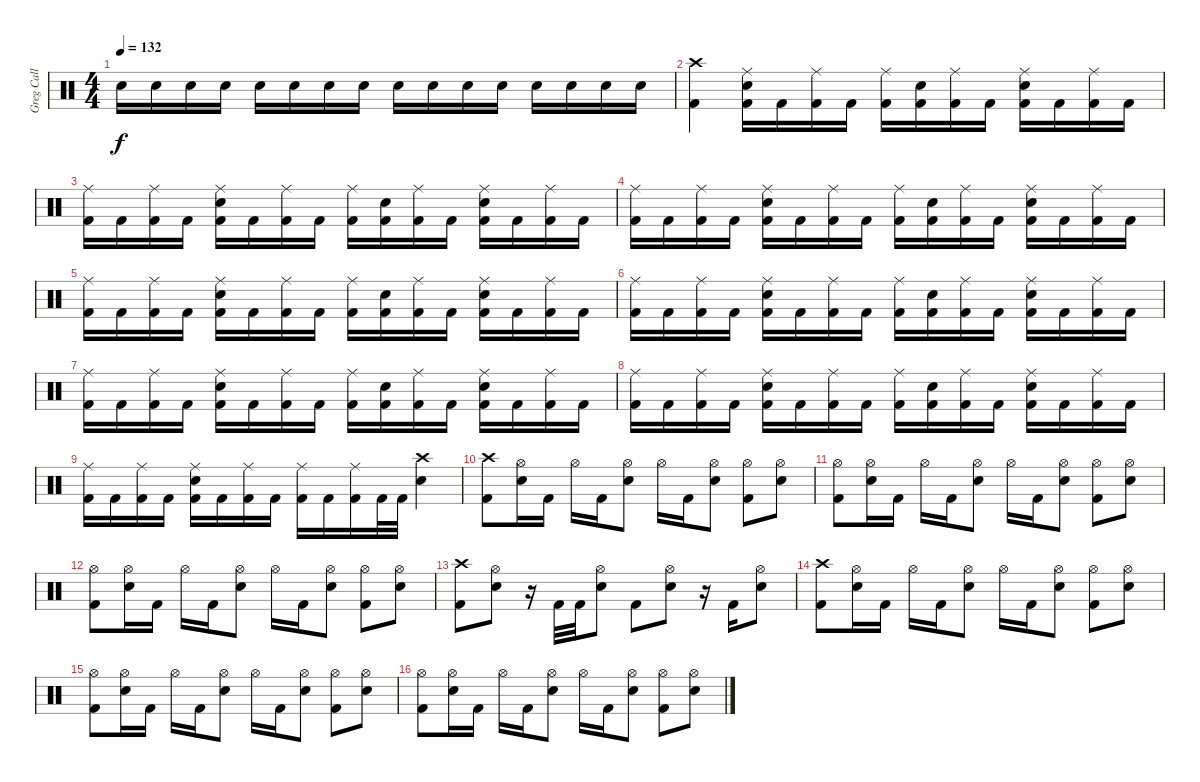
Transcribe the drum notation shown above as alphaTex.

\track ("Greg Call (Drums)" "Greg Call ") {instrument percussion}
\staff {score}
\articulation defaults
\ts (4 4)
\tempo 132
\clef neutral
\ks c "Snare (hit) 2".16{dy f} "Snare (hit) 2".16 "Snare (hit) 2".16 "Snare (hit) 2".16 "Snare (hit) 2".16 "Snare (hit) 2".16 "Snare (hit) 2".16 "Snare (hit) 2".16 "Snare (hit) 2".16 "Snare (hit) 2".16 "Snare (hit) 2".16 "Snare (hit) 2".16 "Snare (hit) 2".16 "Snare (hit) 2".16 "Snare (hit) 2".16 "Snare (hit) 2".16
|
("Crash high (hit)" "Kick (hit) 2").4 ("Ride (middle)" "Kick (hit) 2" "Snare (hit) 2").16 "Kick (hit) 2".16 ("Ride (middle)" "Kick (hit) 2").16 "Kick (hit) 2".16 ("Ride (middle)" "Kick (hit) 2").16 ("Kick (hit) 2" "Snare (hit) 2").16 ("Ride (middle)" "Kick (hit) 2").16 "Kick (hit) 2".16 ("Ride (middle)" "Kick (hit) 2" "Snare (hit) 2").16 "Kick (hit) 2".16 ("Ride (middle)" "Kick (hit) 2").16 "Kick (hit) 2".16 |
("Ride (middle)" "Kick (hit) 2").16 "Kick (hit) 2".16 ("Ride (middle)" "Kick (hit) 2").16 "Kick (hit) 2".16 ("Ride (middle)" "Snare (hit) 2" "Kick (hit) 2").16 "Kick (hit) 2".16 ("Ride (middle)" "Kick (hit) 2").16 "Kick (hit) 2".16 ("Ride (middle)" "Kick (hit) 2").16 ("Snare (hit) 2" "Kick (hit) 2").16 ("Ride (middle)" "Kick (hit) 2").16 "Kick (hit) 2".16 ("Ride (middle)" "Snare (hit) 2" "Kick (hit) 2").16 "Kick (hit) 2".16 ("Ride (middle)" "Kick (hit) 2").16 "Kick (hit) 2".16 |
("Ride (middle)" "Kick (hit) 2").16 "Kick (hit) 2".16 ("Ride (middle)" "Kick (hit) 2").16 "Kick (hit) 2".16 ("Ride (middle)" "Snare (hit) 2" "Kick (hit) 2").16 "Kick (hit) 2".16 ("Ride (middle)" "Kick (hit) 2").16 "Kick (hit) 2".16 ("Ride (middle)" "Kick (hit) 2").16 ("Snare (hit) 2" "Kick (hit) 2").16 ("Ride (middle)" "Kick (hit) 2").16 "Kick (hit) 2".16 ("Ride (middle)" "Snare (hit) 2" "Kick (hit) 2").16 "Kick (hit) 2".16 ("Ride (middle)" "Kick (hit) 2").16 "Kick (hit) 2".16 |
("Ride (middle)" "Kick (hit) 2").16 "Kick (hit) 2".16 ("Ride (middle)" "Kick (hit) 2").16 "Kick (hit) 2".16 ("Ride (middle)" "Snare (hit) 2" "Kick (hit) 2").16 "Kick (hit) 2".16 ("Ride (middle)" "Kick (hit) 2").16 "Kick (hit) 2".16 ("Ride (middle)" "Kick (hit) 2").16 ("Snare (hit) 2" "Kick (hit) 2").16 ("Ride (middle)" "Kick (hit) 2").16 "Kick (hit) 2".16 ("Ride (middle)" "Snare (hit) 2" "Kick (hit) 2").16 "Kick (hit) 2".16 ("Ride (middle)" "Kick (hit) 2").16 "Kick (hit) 2".16 |
("Ride (middle)" "Kick (hit) 2").16 "Kick (hit) 2".16 ("Ride (middle)" "Kick (hit) 2").16 "Kick (hit) 2".16 ("Ride (middle)" "Snare (hit) 2" "Kick (hit) 2").16 "Kick (hit) 2".16 ("Ride (middle)" "Kick (hit) 2").16 "Kick (hit) 2".16 ("Ride (middle)" "Kick (hit) 2").16 ("Snare (hit) 2" "Kick (hit) 2").16 ("Ride (middle)" "Kick (hit) 2").16 "Kick (hit) 2".16 ("Ride (middle)" "Snare (hit) 2" "Kick (hit) 2").16 "Kick (hit) 2".16 ("Ride (middle)" "Kick (hit) 2").16 "Kick (hit) 2".16 |
("Ride (middle)" "Kick (hit) 2").16 "Kick (hit) 2".16 ("Ride (middle)" "Kick (hit) 2").16 "Kick (hit) 2".16 ("Ride (middle)" "Snare (hit) 2" "Kick (hit) 2").16 "Kick (hit) 2".16 ("Ride (middle)" "Kick (hit) 2").16 "Kick (hit) 2".16 ("Ride (middle)" "Kick (hit) 2").16 ("Snare (hit) 2" "Kick (hit) 2").16 ("Ride (middle)" "Kick (hit) 2").16 "Kick (hit) 2".16 ("Ride (middle)" "Snare (hit) 2" "Kick (hit) 2").16 "Kick (hit) 2".16 ("Ride (middle)" "Kick (hit) 2").16 "Kick (hit) 2".16 |
("Ride (middle)" "Kick (hit) 2").16 "Kick (hit) 2".16 ("Ride (middle)" "Kick (hit) 2").16 "Kick (hit) 2".16 ("Ride (middle)" "Snare (hit) 2" "Kick (hit) 2").16 "Kick (hit) 2".16 ("Ride (middle)" "Kick (hit) 2").16 "Kick (hit) 2".16 ("Ride (middle)" "Kick (hit) 2").16 ("Snare (hit) 2" "Kick (hit) 2").16 ("Ride (middle)" "Kick (hit) 2").16 "Kick (hit) 2".16 ("Ride (middle)" "Snare (hit) 2" "Kick (hit) 2").16 "Kick (hit) 2".16 ("Ride (middle)" "Kick (hit) 2").16 "Kick (hit) 2".16 |
("Ride (middle)" "Kick (hit) 2").16 "Kick (hit) 2".16 ("Ride (middle)" "Kick (hit) 2").16 "Kick (hit) 2".16 ("Ride (middle)" "Snare (hit) 2" "Kick (hit) 2").16 "Kick (hit) 2".16 ("Ride (middle)" "Kick (hit) 2").16 "Kick (hit) 2".16 ("Ride (middle)" "Kick (hit) 2").16 "Kick (hit) 2".16 ("Ride (middle)" "Kick (hit) 2").16 "Kick (hit) 2".32 "Kick (hit) 2".32 ("Crash high (hit)" "Snare (hit) 2").4 |
("Crash high (hit)" "Kick (hit) 2").8 ("Hi-Hat (open)" "Snare (hit) 2").16 "Kick (hit) 2".16 "Hi-Hat (open)".16 "Kick (hit) 2".16 ("Hi-Hat (open)" "Snare (hit) 2").8 "Hi-Hat (open)".16 "Kick (hit) 2".16 ("Hi-Hat (open)" "Snare (hit) 2").8 ("Hi-Hat (open)" "Kick (hit) 2").8 ("Hi-Hat (open)" "Snare (hit) 2").8 |
("Hi-Hat (open)" "Kick (hit) 2").8 ("Hi-Hat (open)" "Snare (hit) 2").16 "Kick (hit) 2".16 "Hi-Hat (open)".16 "Kick (hit) 2".16 ("Hi-Hat (open)" "Snare (hit) 2").8 "Hi-Hat (open)".16 "Kick (hit) 2".16 ("Hi-Hat (open)" "Snare (hit) 2").8 ("Hi-Hat (open)" "Kick (hit) 2").8 ("Hi-Hat (open)" "Snare (hit) 2").8 |
("Hi-Hat (open)" "Kick (hit) 2").8 ("Hi-Hat (open)" "Snare (hit) 2").16 "Kick (hit) 2".16 "Hi-Hat (open)".16 "Kick (hit) 2".16 ("Hi-Hat (open)" "Snare (hit) 2").8 "Hi-Hat (open)".16 "Kick (hit) 2".16 ("Hi-Hat (open)" "Snare (hit) 2").8 ("Hi-Hat (open)" "Kick (hit) 2").8 ("Hi-Hat (open)" "Snare (hit) 2").8 |
("Crash high (hit)" "Kick (hit) 2").8 ("Hi-Hat (open)" "Snare (hit) 2").8 r.16 "Kick (hit) 2".32 "Kick (hit) 2".32 ("Hi-Hat (open)" "Snare (hit) 2").8 "Kick (hit) 2".8 ("Hi-Hat (open)" "Snare (hit) 2").8 r.16 "Kick (hit) 2".16 ("Hi-Hat (open)" "Snare (hit) 2").8 |
("Crash high (hit)" "Kick (hit) 2").8 ("Hi-Hat (open)" "Snare (hit) 2").16 "Kick (hit) 2".16 "Hi-Hat (open)".16 "Kick (hit) 2".16 ("Hi-Hat (open)" "Snare (hit) 2").8 "Hi-Hat (open)".16 "Kick (hit) 2".16 ("Hi-Hat (open)" "Snare (hit) 2").8 ("Hi-Hat (open)" "Kick (hit) 2").8 ("Hi-Hat (open)" "Snare (hit) 2").8 |
("Hi-Hat (open)" "Kick (hit) 2").8 ("Hi-Hat (open)" "Snare (hit) 2").16 "Kick (hit) 2".16 "Hi-Hat (open)".16 "Kick (hit) 2".16 ("Hi-Hat (open)" "Snare (hit) 2").8 "Hi-Hat (open)".16 "Kick (hit) 2".16 ("Hi-Hat (open)" "Snare (hit) 2").8 ("Hi-Hat (open)" "Kick (hit) 2").8 ("Hi-Hat (open)" "Snare (hit) 2").8 |
("Hi-Hat (open)" "Kick (hit) 2").8 ("Hi-Hat (open)" "Snare (hit) 2").16 "Kick (hit) 2".16 "Hi-Hat (open)".16 "Kick (hit) 2".16 ("Hi-Hat (open)" "Snare (hit) 2").8 "Hi-Hat (open)".16 "Kick (hit) 2".16 ("Hi-Hat (open)" "Snare (hit) 2").8 ("Hi-Hat (open)" "Kick (hit) 2").8 ("Hi-Hat (open)" "Snare (hit) 2").8
